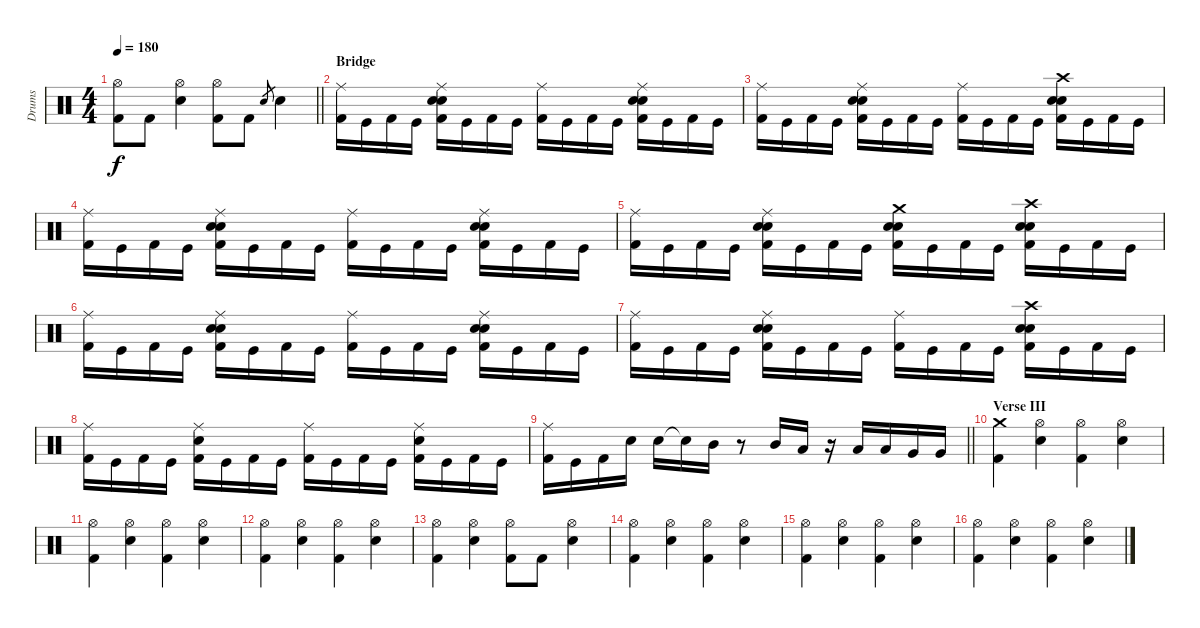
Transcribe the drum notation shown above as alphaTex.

\track ("Drums" "Drums") {instrument percussion}
\staff {score}
\articulation defaults
\ts (4 4)
\tempo 180
\clef neutral
\barLineRight lightlight
\ks c
("Hi-Hat (open)" "Kick (hit) 2").8{dy f} "Kick (hit) 2".8 ("Hi-Hat (open)" "Electric Snare (hit)").4 ("Hi-Hat (open)" "Kick (hit) 2").8 "Kick (hit) 2".8 "Electric Snare (hit)".8{gr} "Electric Snare (hit)".4 |
\section ("" "Bridge")
("Ride (middle)" "Kick (hit) 2").16 "Kick (hit)".16 "Kick (hit) 2".16 "Kick (hit)".16 ("Ride (middle)" "Electric Snare (hit)" "Electric Snare (hit)" "Kick (hit) 2").16 "Kick (hit)".16 "Kick (hit) 2".16 "Kick (hit)".16 ("Ride (middle)" "Kick (hit) 2").16 "Kick (hit)".16 "Kick (hit) 2".16 "Kick (hit)".16 ("Ride (middle)" "Electric Snare (hit)" "Electric Snare (hit)" "Kick (hit) 2").16 "Kick (hit)".16 "Kick (hit) 2".16 "Kick (hit)".16 |
("Ride (middle)" "Kick (hit) 2").16 "Kick (hit)".16 "Kick (hit) 2".16 "Kick (hit)".16 ("Ride (middle)" "Electric Snare (hit)" "Electric Snare (hit)" "Kick (hit) 2").16 "Kick (hit)".16 "Kick (hit) 2".16 "Kick (hit)".16 ("Ride (middle)" "Kick (hit) 2").16 "Kick (hit)".16 "Kick (hit) 2".16 "Kick (hit)".16 ("Crash high (hit)" "Electric Snare (hit)" "Electric Snare (hit)" "Kick (hit) 2").16 "Kick (hit)".16 "Kick (hit) 2".16 "Kick (hit)".16 |
("Ride (middle)" "Kick (hit) 2").16 "Kick (hit)".16 "Kick (hit) 2".16 "Kick (hit)".16 ("Ride (middle)" "Electric Snare (hit)" "Electric Snare (hit)" "Kick (hit) 2").16 "Kick (hit)".16 "Kick (hit) 2".16 "Kick (hit)".16 ("Ride (middle)" "Kick (hit) 2").16 "Kick (hit)".16 "Kick (hit) 2".16 "Kick (hit)".16 ("Ride (middle)" "Electric Snare (hit)" "Electric Snare (hit)" "Kick (hit) 2").16 "Kick (hit)".16 "Kick (hit) 2".16 "Kick (hit)".16 |
("Ride (middle)" "Kick (hit) 2").16 "Kick (hit)".16 "Kick (hit) 2".16 "Kick (hit)".16 ("Ride (middle)" "Electric Snare (hit)" "Electric Snare (hit)" "Kick (hit) 2").16 "Kick (hit)".16 "Kick (hit) 2".16 "Kick (hit)".16 ("Crash medium (hit)" "Electric Snare (hit)" "Electric Snare (hit)" "Kick (hit) 2").16 "Kick (hit)".16 "Kick (hit) 2".16 "Kick (hit)".16 ("Crash high (hit)" "Electric Snare (hit)" "Electric Snare (hit)" "Kick (hit) 2").16 "Kick (hit)".16 "Kick (hit) 2".16 "Kick (hit)".16 |
("Ride (middle)" "Kick (hit) 2").16 "Kick (hit)".16 "Kick (hit) 2".16 "Kick (hit)".16 ("Ride (middle)" "Electric Snare (hit)" "Electric Snare (hit)" "Kick (hit) 2").16 "Kick (hit)".16 "Kick (hit) 2".16 "Kick (hit)".16 ("Ride (middle)" "Kick (hit) 2").16 "Kick (hit)".16 "Kick (hit) 2".16 "Kick (hit)".16 ("Ride (middle)" "Electric Snare (hit)" "Electric Snare (hit)" "Kick (hit) 2").16 "Kick (hit)".16 "Kick (hit) 2".16 "Kick (hit)".16 |
("Ride (middle)" "Kick (hit) 2").16 "Kick (hit)".16 "Kick (hit) 2".16 "Kick (hit)".16 ("Ride (middle)" "Electric Snare (hit)" "Electric Snare (hit)" "Kick (hit) 2").16 "Kick (hit)".16 "Kick (hit) 2".16 "Kick (hit)".16 ("Ride (middle)" "Kick (hit) 2").16 "Kick (hit)".16 "Kick (hit) 2".16 "Kick (hit)".16 ("Crash high (hit)" "Electric Snare (hit)" "Electric Snare (hit)" "Kick (hit) 2").16 "Kick (hit)".16 "Kick (hit) 2".16 "Kick (hit)".16 |
("Ride (middle)" "Kick (hit) 2").16 "Kick (hit)".16 "Kick (hit) 2".16 "Kick (hit)".16 ("Ride (middle)" "Electric Snare (hit)" "Kick (hit) 2").16 "Kick (hit)".16 "Kick (hit) 2".16 "Kick (hit)".16 ("Ride (middle)" "Kick (hit) 2").16 "Kick (hit)".16 "Kick (hit) 2".16 "Kick (hit)".16 ("Ride (middle)" "Electric Snare (hit)" "Kick (hit) 2").16 "Kick (hit)".16 "Kick (hit) 2".16 "Kick (hit)".16 |
\barLineRight lightlight
("Ride (middle)" "Kick (hit) 2").16 "Kick (hit)".16 "Kick (hit) 2".16 "Electric Snare (hit)".16 "Electric Snare (hit)".16 "Snare (hit)"{t}.16 "Mid Tom (hit)".16 r.8 "Mid Tom (hit)".16 "Low Tom (hit)".16 r.16 "Low Tom (hit)".16 "Low Tom (hit)".16 "Very Low Tom (hit)".16 "Very Low Tom (hit)".16 |
\section ("" "Verse III")
("Crash medium (hit)" "Kick (hit) 2").4 ("Hi-Hat (open)" "Electric Snare (hit)").4 ("Hi-Hat (open)" "Kick (hit) 2").4 ("Hi-Hat (open)" "Electric Snare (hit)").4 |
("Hi-Hat (open)" "Kick (hit) 2").4 ("Hi-Hat (open)" "Electric Snare (hit)").4 ("Hi-Hat (open)" "Kick (hit) 2").4 ("Hi-Hat (open)" "Electric Snare (hit)").4 |
("Hi-Hat (open)" "Kick (hit) 2").4 ("Hi-Hat (open)" "Electric Snare (hit)").4 ("Hi-Hat (open)" "Kick (hit) 2").4 ("Hi-Hat (open)" "Electric Snare (hit)").4 |
("Hi-Hat (open)" "Kick (hit) 2").4 ("Hi-Hat (open)" "Electric Snare (hit)").4 ("Hi-Hat (open)" "Kick (hit) 2").8 "Kick (hit) 2".8 ("Hi-Hat (open)" "Electric Snare (hit)").4 |
("Hi-Hat (open)" "Kick (hit) 2").4 ("Hi-Hat (open)" "Electric Snare (hit)").4 ("Hi-Hat (open)" "Kick (hit) 2").4 ("Hi-Hat (open)" "Electric Snare (hit)").4 |
("Hi-Hat (open)" "Kick (hit) 2").4 ("Hi-Hat (open)" "Electric Snare (hit)").4 ("Hi-Hat (open)" "Kick (hit) 2").4 ("Hi-Hat (open)" "Electric Snare (hit)").4 |
("Hi-Hat (open)" "Kick (hit) 2").4 ("Hi-Hat (open)" "Electric Snare (hit)").4 ("Hi-Hat (open)" "Kick (hit) 2").4 ("Hi-Hat (open)" "Electric Snare (hit)").4
